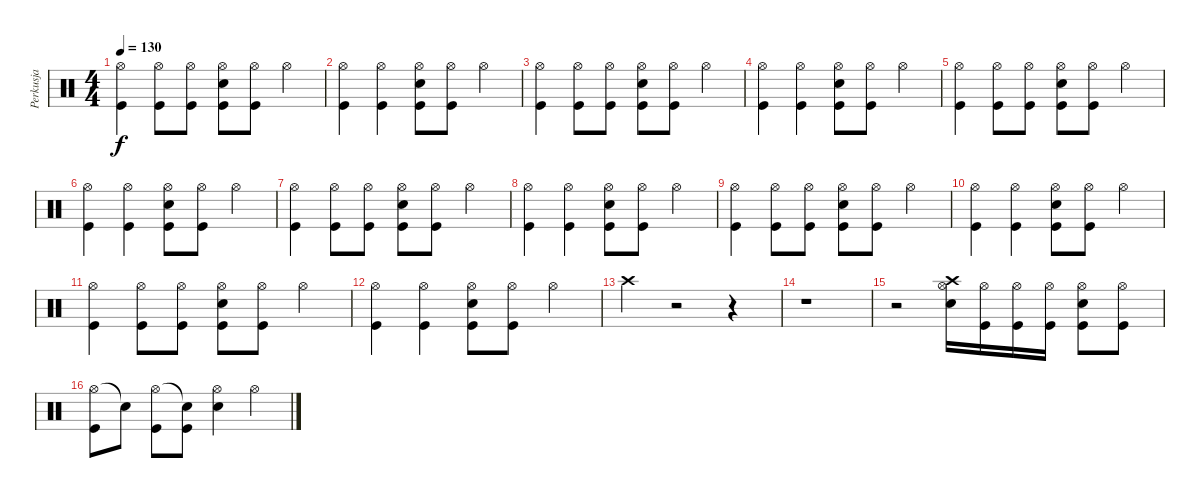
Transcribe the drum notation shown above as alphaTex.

\track ("Perkusja" "Perkusja") {instrument percussion}
\staff {score}
\articulation defaults
\ts (4 4)
\tempo 130
\clef neutral
\ks c
("Hi-Hat (open)" "Kick (hit)").4{dy f} ("Hi-Hat (open)" "Kick (hit)").8 ("Hi-Hat (open)" "Kick (hit)").8 ("Hi-Hat (open)" "Metronome (bell)" "Kick (hit)").8 ("Hi-Hat (open)" "Kick (hit)").8 "Hi-Hat (open)".4 |
("Hi-Hat (open)" "Kick (hit)").4 ("Hi-Hat (open)" "Kick (hit)").4 ("Hi-Hat (open)" "Metronome (bell)" "Kick (hit)").8 ("Hi-Hat (open)" "Kick (hit)").8 "Hi-Hat (open)".4 |
("Hi-Hat (open)" "Kick (hit)").4 ("Hi-Hat (open)" "Kick (hit)").8 ("Hi-Hat (open)" "Kick (hit)").8 ("Hi-Hat (open)" "Metronome (bell)" "Kick (hit)").8 ("Hi-Hat (open)" "Kick (hit)").8 "Hi-Hat (open)".4 |
("Hi-Hat (open)" "Kick (hit)").4 ("Hi-Hat (open)" "Kick (hit)").4 ("Hi-Hat (open)" "Metronome (bell)" "Kick (hit)").8 ("Hi-Hat (open)" "Kick (hit)").8 "Hi-Hat (open)".4 |
("Hi-Hat (open)" "Kick (hit)").4 ("Hi-Hat (open)" "Kick (hit)").8 ("Hi-Hat (open)" "Kick (hit)").8 ("Hi-Hat (open)" "Metronome (bell)" "Kick (hit)").8 ("Hi-Hat (open)" "Kick (hit)").8 "Hi-Hat (open)".4 |
("Hi-Hat (open)" "Kick (hit)").4 ("Hi-Hat (open)" "Kick (hit)").4 ("Hi-Hat (open)" "Metronome (bell)" "Kick (hit)").8 ("Hi-Hat (open)" "Kick (hit)").8 "Hi-Hat (open)".4 |
("Hi-Hat (open)" "Kick (hit)").4 ("Hi-Hat (open)" "Kick (hit)").8 ("Hi-Hat (open)" "Kick (hit)").8 ("Hi-Hat (open)" "Metronome (bell)" "Kick (hit)").8 ("Hi-Hat (open)" "Kick (hit)").8 "Hi-Hat (open)".4 |
("Hi-Hat (open)" "Kick (hit)").4 ("Hi-Hat (open)" "Kick (hit)").4 ("Hi-Hat (open)" "Metronome (bell)" "Kick (hit)").8 ("Hi-Hat (open)" "Kick (hit)").8 "Hi-Hat (open)".4 |
("Hi-Hat (open)" "Kick (hit)").4 ("Hi-Hat (open)" "Kick (hit)").8 ("Hi-Hat (open)" "Kick (hit)").8 ("Hi-Hat (open)" "Metronome (bell)" "Kick (hit)").8 ("Hi-Hat (open)" "Kick (hit)").8 "Hi-Hat (open)".4 |
("Hi-Hat (open)" "Kick (hit)").4 ("Hi-Hat (open)" "Kick (hit)").4 ("Hi-Hat (open)" "Metronome (bell)" "Kick (hit)").8 ("Hi-Hat (open)" "Kick (hit)").8 "Hi-Hat (open)".4 |
("Hi-Hat (open)" "Kick (hit)").4 ("Hi-Hat (open)" "Kick (hit)").8 ("Hi-Hat (open)" "Kick (hit)").8 ("Hi-Hat (open)" "Metronome (bell)" "Kick (hit)").8 ("Hi-Hat (open)" "Kick (hit)").8 "Hi-Hat (open)".4 |
("Hi-Hat (open)" "Kick (hit)").4 ("Hi-Hat (open)" "Kick (hit)").4 ("Hi-Hat (open)" "Metronome (bell)" "Kick (hit)").8 ("Hi-Hat (open)" "Kick (hit)").8 "Hi-Hat (open)".4 |
"Crash high (hit)".4 r.2 r.4 |
r.1 |
r.2 ("Hi-Hat (open)" "Crash high (hit)" "Metronome (bell)").16 ("Hi-Hat (open)" "Kick (hit)").16 ("Hi-Hat (open)" "Kick (hit)").16 ("Hi-Hat (open)" "Kick (hit)").16 ("Hi-Hat (open)" "Metronome (bell)" "Kick (hit)").8 ("Hi-Hat (open)" "Kick (hit)").8 |
("Hi-Hat (open)" "Kick (hit)").8 "Snare (hit)"{t}.8 ("Hi-Hat (open)" "Kick (hit)").8 ("Snare (hit)"{t} "Kick (hit)").8 ("Hi-Hat (open)" "Metronome (bell)").4 "Hi-Hat (open)".4
